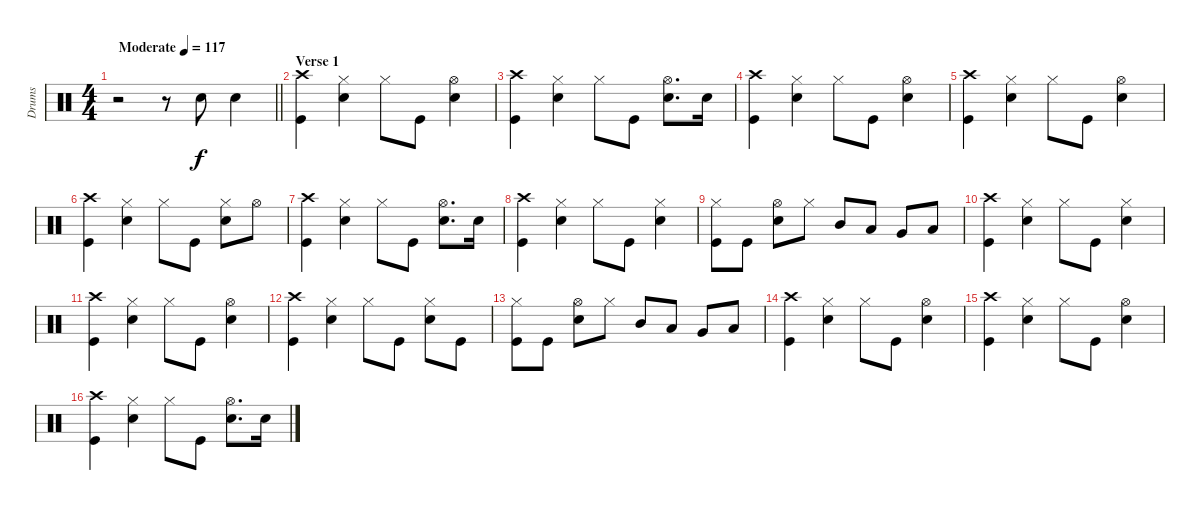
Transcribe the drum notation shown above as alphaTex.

\track ("Drums" "Drums") {instrument percussion}
\staff {score}
\articulation defaults
\ts (4 4)
\tempo (117 "Moderate")
\clef neutral
\barLineRight lightlight
\ks c
r.2{dy f} r.8 "Snare (hit) 2".8 "Snare (hit) 2".4 |
\section ("" "Verse 1")
("Kick (hit)" "Crash high (hit)").4 ("Hi-Hat (closed)" "Snare (hit) 2").4 "Hi-Hat (closed)".8 "Kick (hit)".8 ("Hi-Hat (open)" "Snare (hit) 2").4 |
("Kick (hit)" "Crash high (hit)").4 ("Hi-Hat (closed)" "Snare (hit) 2").4 "Hi-Hat (closed)".8 "Kick (hit)".8 ("Hi-Hat (open)" "Snare (hit) 2").8{d} "Snare (hit) 2".16 |
("Kick (hit)" "Crash high (hit)").4 ("Hi-Hat (closed)" "Snare (hit) 2").4 "Hi-Hat (closed)".8 "Kick (hit)".8 ("Hi-Hat (open)" "Snare (hit) 2").4 |
("Kick (hit)" "Crash high (hit)").4 ("Hi-Hat (closed)" "Snare (hit) 2").4 "Hi-Hat (closed)".8 "Kick (hit)".8 ("Hi-Hat (open)" "Snare (hit) 2").4 |
("Kick (hit)" "Crash high (hit)").4 ("Hi-Hat (closed)" "Snare (hit) 2").4 "Hi-Hat (closed)".8 "Kick (hit)".8 ("Hi-Hat (closed)" "Snare (hit) 2").8 "Hi-Hat (open)".8 |
("Kick (hit)" "Crash high (hit)").4 ("Hi-Hat (closed)" "Snare (hit) 2").4 "Hi-Hat (closed)".8 "Kick (hit)".8 ("Hi-Hat (open)" "Snare (hit) 2").8{d} "Snare (hit) 2".16 |
("Crash high (hit)" "Kick (hit)").4 ("Hi-Hat (closed)" "Snare (hit) 2").4 "Hi-Hat (closed)".8 "Kick (hit)".8 ("Hi-Hat (closed)" "Snare (hit) 2").4 |
("Hi-Hat (closed)" "Kick (hit)").8 "Kick (hit)".8 ("Hi-Hat (open)" "Snare (hit) 2").8 "Hi-Hat (closed)".8 "Mid Tom (hit)".8 "Low Tom (hit)".8 "Very Low Tom (hit)".8 "Low Floor Tom (hit)".8 |
("Crash high (hit)" "Kick (hit)").4 ("Hi-Hat (closed)" "Snare (hit) 2").4 "Hi-Hat (closed)".8 "Kick (hit)".8 ("Hi-Hat (closed)" "Snare (hit) 2").4 |
("Kick (hit)" "Crash high (hit)").4 ("Hi-Hat (closed)" "Snare (hit) 2").4 "Hi-Hat (closed)".8 "Kick (hit)".8 ("Hi-Hat (open)" "Snare (hit) 2").4 |
("Kick (hit)" "Crash high (hit)").4 ("Hi-Hat (closed)" "Snare (hit) 2").4 "Hi-Hat (closed)".8 "Kick (hit)".8 ("Hi-Hat (closed)" "Snare (hit) 2").8 "Kick (hit)".8 |
("Hi-Hat (closed)" "Kick (hit)").8 "Kick (hit)".8 ("Hi-Hat (open)" "Snare (hit) 2").8 "Hi-Hat (closed)".8 "Mid Tom (hit)".8 "Low Tom (hit)".8 "Very Low Tom (hit)".8 "Low Floor Tom (hit)".8 |
("Kick (hit)" "Crash high (hit)").4 ("Hi-Hat (closed)" "Snare (hit) 2").4 "Hi-Hat (closed)".8 "Kick (hit)".8 ("Hi-Hat (open)" "Snare (hit) 2").4 |
("Kick (hit)" "Crash high (hit)").4 ("Hi-Hat (closed)" "Snare (hit) 2").4 "Hi-Hat (closed)".8 "Kick (hit)".8 ("Hi-Hat (open)" "Snare (hit) 2").4 |
("Kick (hit)" "Crash high (hit)").4 ("Hi-Hat (closed)" "Snare (hit) 2").4 "Hi-Hat (closed)".8 "Kick (hit)".8 ("Hi-Hat (open)" "Snare (hit) 2").8{d} "Snare (hit) 2".16
